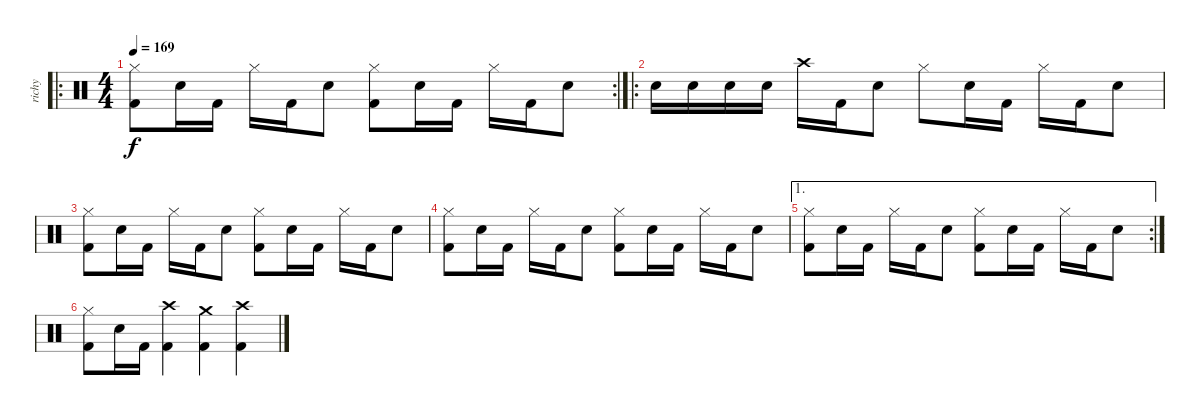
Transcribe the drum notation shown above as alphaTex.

\track ("richy" "richy") {instrument percussion}
\staff {score}
\articulation defaults
\ro
\rc 2
\ts (4 4)
\tempo 169
\clef neutral
\ks c
("Hi-Hat (closed)" "Kick (hit) 2").8{dy f} "Snare (hit) 2".16 "Kick (hit) 2".16 "Hi-Hat (closed)".16 "Kick (hit) 2".16 "Snare (hit) 2".8 ("Hi-Hat (closed)" "Kick (hit) 2").8 "Snare (hit) 2".16 "Kick (hit) 2".16 "Hi-Hat (closed)".16 "Kick (hit) 2".16 "Snare (hit) 2".8 |
\ro "Snare (hit) 2".16 "Snare (hit) 2".16 "Snare (hit) 2".16 "Snare (hit) 2".16 "Crash high (hit)".16 "Kick (hit) 2".16 "Snare (hit) 2".8 "Hi-Hat (closed)".8 "Snare (hit) 2".16 "Kick (hit) 2".16 "Hi-Hat (closed)".16 "Kick (hit) 2".16 "Snare (hit) 2".8
|
("Hi-Hat (closed)" "Kick (hit) 2").8 "Snare (hit) 2".16 "Kick (hit) 2".16 "Hi-Hat (closed)".16 "Kick (hit) 2".16 "Snare (hit) 2".8 ("Hi-Hat (closed)" "Kick (hit) 2").8 "Snare (hit) 2".16 "Kick (hit) 2".16 "Hi-Hat (closed)".16 "Kick (hit) 2".16 "Snare (hit) 2".8 |
("Hi-Hat (closed)" "Kick (hit) 2").8 "Snare (hit) 2".16 "Kick (hit) 2".16 "Hi-Hat (closed)".16 "Kick (hit) 2".16 "Snare (hit) 2".8 ("Hi-Hat (closed)" "Kick (hit) 2").8 "Snare (hit) 2".16 "Kick (hit) 2".16 "Hi-Hat (closed)".16 "Kick (hit) 2".16 "Snare (hit) 2".8 |
\ae 1
\rc 2
("Hi-Hat (closed)" "Kick (hit) 2").8 "Snare (hit) 2".16 "Kick (hit) 2".16 "Hi-Hat (closed)".16 "Kick (hit) 2".16 "Snare (hit) 2".8 ("Hi-Hat (closed)" "Kick (hit) 2").8 "Snare (hit) 2".16 "Kick (hit) 2".16 "Hi-Hat (closed)".16 "Kick (hit) 2".16 "Snare (hit) 2".8 |
("Hi-Hat (closed)" "Kick (hit) 2").8 "Snare (hit) 2".16 "Kick (hit) 2".16 ("Crash high (hit)" "Kick (hit) 2").4 ("Crash medium (hit)" "Kick (hit) 2").4 ("Crash high (hit)" "Kick (hit) 2").4
